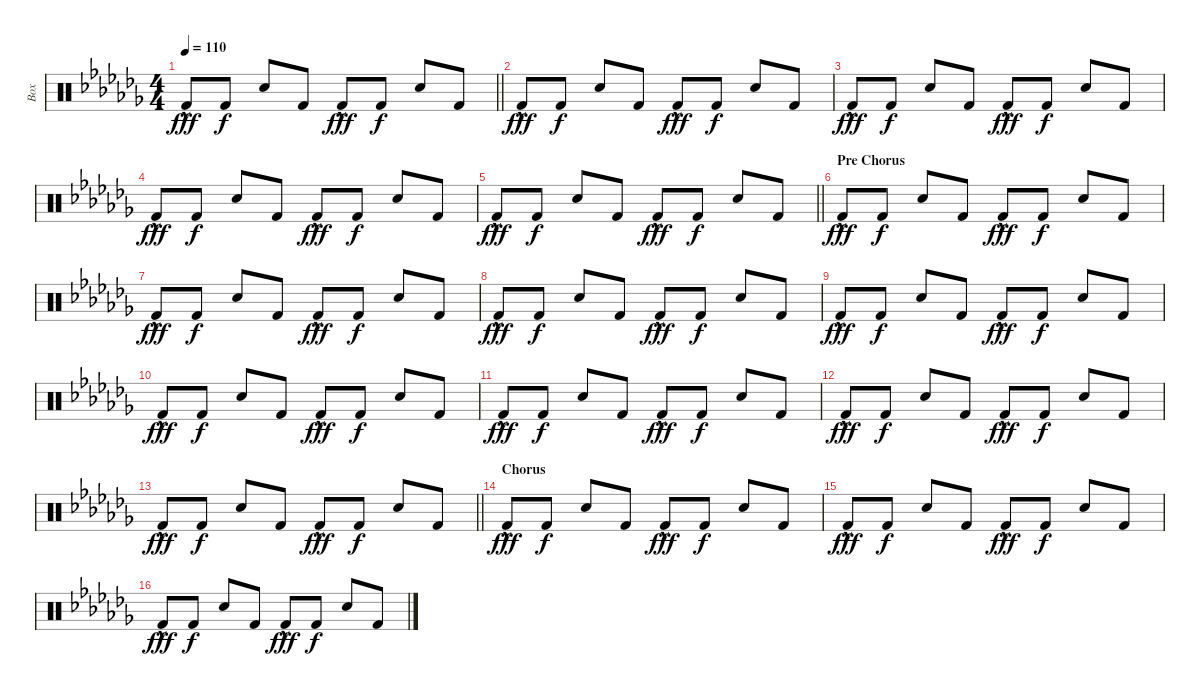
\track ("Box" "Box") {instrument percussion}
\staff {score}
\articulation defaults
\ts (4 4)
\tempo 110
\clef neutral
\barLineRight lightlight
\ks abminor "Kick (hit) 2"{hac}.8{dy fff volume 13} "Kick (hit) 2".8{dy f volume 5} "Snare (hit) 2".8{volume 13} "Kick (hit) 2".8{volume 5} "Kick (hit) 2"{hac}.8{dy fff volume 13} "Kick (hit) 2".8{dy f volume 5} "Snare (hit) 2".8{volume 13} "Kick (hit) 2".8{volume 5}
|
"Kick (hit) 2"{hac}.8{dy fff volume 13} "Kick (hit) 2".8{dy f volume 5} "Snare (hit) 2".8{volume 13} "Kick (hit) 2".8{volume 5} "Kick (hit) 2"{hac}.8{dy fff volume 13} "Kick (hit) 2".8{dy f volume 5} "Snare (hit) 2".8{volume 13} "Kick (hit) 2".8{volume 5} |
"Kick (hit) 2"{hac}.8{dy fff volume 13} "Kick (hit) 2".8{dy f volume 5} "Snare (hit) 2".8{volume 13} "Kick (hit) 2".8{volume 5} "Kick (hit) 2"{hac}.8{dy fff volume 13} "Kick (hit) 2".8{dy f volume 5} "Snare (hit) 2".8{volume 13} "Kick (hit) 2".8{volume 5} |
"Kick (hit) 2"{hac}.8{dy fff volume 13} "Kick (hit) 2".8{dy f volume 5} "Snare (hit) 2".8{volume 13} "Kick (hit) 2".8{volume 5} "Kick (hit) 2"{hac}.8{dy fff volume 13} "Kick (hit) 2".8{dy f volume 5} "Snare (hit) 2".8{volume 13} "Kick (hit) 2".8{volume 5} |
\barLineRight lightlight "Kick (hit) 2"{hac}.8{dy fff volume 13} "Kick (hit) 2".8{dy f volume 5} "Snare (hit) 2".8{volume 13} "Kick (hit) 2".8{volume 5} "Kick (hit) 2"{hac}.8{dy fff volume 13} "Kick (hit) 2".8{dy f volume 5} "Snare (hit) 2".8{volume 13} "Kick (hit) 2".8{volume 5}
|
\section ("" "Pre Chorus")
"Kick (hit) 2"{hac}.8{dy fff volume 13} "Kick (hit) 2".8{dy f volume 5} "Snare (hit) 2".8{volume 13} "Kick (hit) 2".8{volume 5} "Kick (hit) 2"{hac}.8{dy fff volume 13} "Kick (hit) 2".8{dy f volume 5} "Snare (hit) 2".8{volume 13} "Kick (hit) 2".8{volume 5} |
"Kick (hit) 2"{hac}.8{dy fff volume 13} "Kick (hit) 2".8{dy f volume 5} "Snare (hit) 2".8{volume 13} "Kick (hit) 2".8{volume 5} "Kick (hit) 2"{hac}.8{dy fff volume 13} "Kick (hit) 2".8{dy f volume 5} "Snare (hit) 2".8{volume 13} "Kick (hit) 2".8{volume 5} |
"Kick (hit) 2"{hac}.8{dy fff volume 13} "Kick (hit) 2".8{dy f volume 5} "Snare (hit) 2".8{volume 13} "Kick (hit) 2".8{volume 5} "Kick (hit) 2"{hac}.8{dy fff volume 13} "Kick (hit) 2".8{dy f volume 5} "Snare (hit) 2".8{volume 13} "Kick (hit) 2".8{volume 5} |
"Kick (hit) 2"{hac}.8{dy fff volume 13} "Kick (hit) 2".8{dy f volume 5} "Snare (hit) 2".8{volume 13} "Kick (hit) 2".8{volume 5} "Kick (hit) 2"{hac}.8{dy fff volume 13} "Kick (hit) 2".8{dy f volume 5} "Snare (hit) 2".8{volume 13} "Kick (hit) 2".8{volume 5} |
"Kick (hit) 2"{hac}.8{dy fff volume 13} "Kick (hit) 2".8{dy f volume 5} "Snare (hit) 2".8{volume 13} "Kick (hit) 2".8{volume 5} "Kick (hit) 2"{hac}.8{dy fff volume 13} "Kick (hit) 2".8{dy f volume 5} "Snare (hit) 2".8{volume 13} "Kick (hit) 2".8{volume 5} |
"Kick (hit) 2"{hac}.8{dy fff volume 13} "Kick (hit) 2".8{dy f volume 5} "Snare (hit) 2".8{volume 13} "Kick (hit) 2".8{volume 5} "Kick (hit) 2"{hac}.8{dy fff volume 13} "Kick (hit) 2".8{dy f volume 5} "Snare (hit) 2".8{volume 13} "Kick (hit) 2".8{volume 5} |
"Kick (hit) 2"{hac}.8{dy fff volume 13} "Kick (hit) 2".8{dy f volume 5} "Snare (hit) 2".8{volume 13} "Kick (hit) 2".8{volume 5} "Kick (hit) 2"{hac}.8{dy fff volume 13} "Kick (hit) 2".8{dy f volume 5} "Snare (hit) 2".8{volume 13} "Kick (hit) 2".8{volume 5} |
\barLineRight lightlight "Kick (hit) 2"{hac}.8{dy fff volume 13} "Kick (hit) 2".8{dy f volume 5} "Snare (hit) 2".8{volume 13} "Kick (hit) 2".8{volume 5} "Kick (hit) 2"{hac}.8{dy fff volume 13} "Kick (hit) 2".8{dy f volume 5} "Snare (hit) 2".8{volume 13} "Kick (hit) 2".8{volume 5}
|
\section ("" "Chorus")
"Kick (hit) 2"{hac}.8{dy fff volume 13} "Kick (hit) 2".8{dy f volume 5} "Snare (hit) 2".8{volume 13} "Kick (hit) 2".8{volume 5} "Kick (hit) 2"{hac}.8{dy fff volume 13} "Kick (hit) 2".8{dy f volume 5} "Snare (hit) 2".8{volume 13} "Kick (hit) 2".8{volume 5} |
"Kick (hit) 2"{hac}.8{dy fff volume 13} "Kick (hit) 2".8{dy f volume 5} "Snare (hit) 2".8{volume 13} "Kick (hit) 2".8{volume 5} "Kick (hit) 2"{hac}.8{dy fff volume 13} "Kick (hit) 2".8{dy f volume 5} "Snare (hit) 2".8{volume 13} "Kick (hit) 2".8{volume 5} |
"Kick (hit) 2"{hac}.8{dy fff volume 13} "Kick (hit) 2".8{dy f volume 5} "Snare (hit) 2".8{volume 13} "Kick (hit) 2".8{volume 5} "Kick (hit) 2"{hac}.8{dy fff volume 13} "Kick (hit) 2".8{dy f volume 5} "Snare (hit) 2".8{volume 13} "Kick (hit) 2".8{volume 5}
